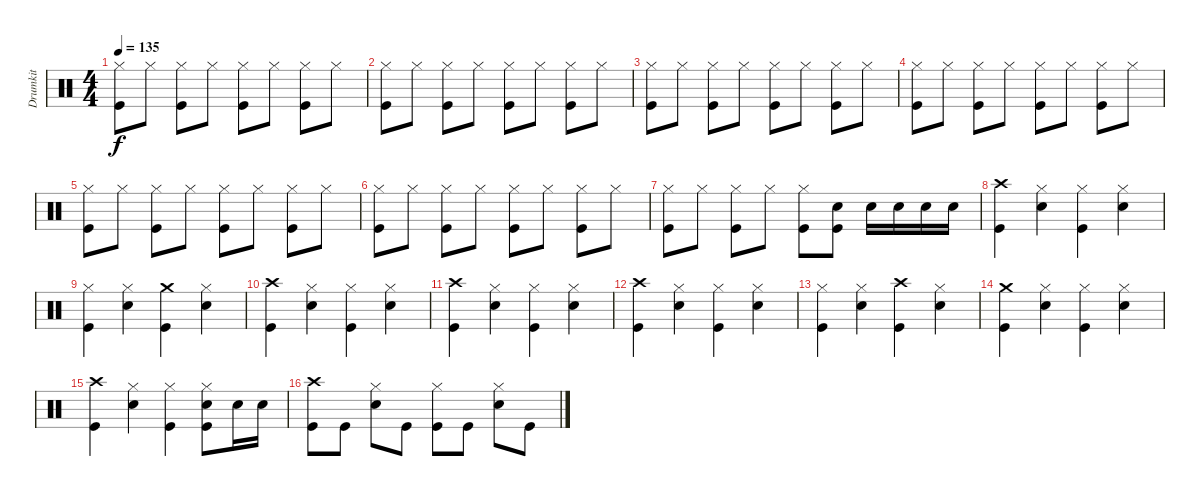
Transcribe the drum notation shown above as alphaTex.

\track ("Drumkit" "Drumkit") {instrument percussion}
\staff {score}
\articulation defaults
\ts (4 4)
\tempo 135
\clef neutral
\ks c
("Hi-Hat (closed)" "Kick (hit)").8{dy f} "Hi-Hat (closed)".8 ("Hi-Hat (closed)" "Kick (hit)").8 "Hi-Hat (closed)".8 ("Hi-Hat (closed)" "Kick (hit)").8 "Hi-Hat (closed)".8 ("Hi-Hat (closed)" "Kick (hit)").8 "Hi-Hat (closed)".8 |
("Hi-Hat (closed)" "Kick (hit)").8 "Hi-Hat (closed)".8 ("Hi-Hat (closed)" "Kick (hit)").8 "Hi-Hat (closed)".8 ("Hi-Hat (closed)" "Kick (hit)").8 "Hi-Hat (closed)".8 ("Hi-Hat (closed)" "Kick (hit)").8 "Hi-Hat (closed)".8 |
("Hi-Hat (closed)" "Kick (hit)").8 "Hi-Hat (closed)".8 ("Hi-Hat (closed)" "Kick (hit)").8 "Hi-Hat (closed)".8 ("Hi-Hat (closed)" "Kick (hit)").8 "Hi-Hat (closed)".8 ("Hi-Hat (closed)" "Kick (hit)").8 "Hi-Hat (closed)".8 |
("Hi-Hat (closed)" "Kick (hit)").8 "Hi-Hat (closed)".8 ("Hi-Hat (closed)" "Kick (hit)").8 "Hi-Hat (closed)".8 ("Hi-Hat (closed)" "Kick (hit)").8 "Hi-Hat (closed)".8 ("Hi-Hat (closed)" "Kick (hit)").8 "Hi-Hat (closed)".8 |
("Hi-Hat (closed)" "Kick (hit)").8 "Hi-Hat (closed)".8 ("Hi-Hat (closed)" "Kick (hit)").8 "Hi-Hat (closed)".8 ("Hi-Hat (closed)" "Kick (hit)").8 "Hi-Hat (closed)".8 ("Hi-Hat (closed)" "Kick (hit)").8 "Hi-Hat (closed)".8 |
("Hi-Hat (closed)" "Kick (hit)").8 "Hi-Hat (closed)".8 ("Hi-Hat (closed)" "Kick (hit)").8 "Hi-Hat (closed)".8 ("Hi-Hat (closed)" "Kick (hit)").8 "Hi-Hat (closed)".8 ("Hi-Hat (closed)" "Kick (hit)").8 "Hi-Hat (closed)".8 |
("Hi-Hat (closed)" "Kick (hit)").8 "Hi-Hat (closed)".8 ("Hi-Hat (closed)" "Kick (hit)").8 "Hi-Hat (closed)".8 ("Hi-Hat (closed)" "Kick (hit)").8 ("Snare (hit) 2" "Kick (hit)").8 "Snare (hit) 2".16 "Snare (hit) 2".16 "Snare (hit) 2".16 "Snare (hit) 2".16 |
("Crash high (hit)" "Kick (hit)").4 ("Hi-Hat (closed)" "Snare (hit) 2").4 ("Hi-Hat (closed)" "Kick (hit)").4 ("Hi-Hat (closed)" "Snare (hit) 2").4 |
("Hi-Hat (closed)" "Kick (hit)").4 ("Hi-Hat (closed)" "Snare (hit) 2").4 ("Crash medium (hit)" "Kick (hit)").4 ("Hi-Hat (closed)" "Snare (hit) 2").4 |
("Crash high (hit)" "Kick (hit)").4 ("Hi-Hat (closed)" "Snare (hit) 2").4 ("Hi-Hat (closed)" "Kick (hit)").4 ("Hi-Hat (closed)" "Snare (hit) 2").4 |
("Crash high (hit)" "Kick (hit)").4 ("Hi-Hat (closed)" "Snare (hit) 2").4 ("Hi-Hat (closed)" "Kick (hit)").4 ("Hi-Hat (closed)" "Snare (hit) 2").4 |
("Crash high (hit)" "Kick (hit)").4 ("Hi-Hat (closed)" "Snare (hit) 2").4 ("Hi-Hat (closed)" "Kick (hit)").4 ("Hi-Hat (closed)" "Snare (hit) 2").4 |
("Hi-Hat (closed)" "Kick (hit)").4 ("Hi-Hat (closed)" "Snare (hit) 2").4 ("Crash high (hit)" "Kick (hit)").4 ("Hi-Hat (closed)" "Snare (hit) 2").4 |
("Crash medium (hit)" "Kick (hit)").4 ("Hi-Hat (closed)" "Snare (hit) 2").4 ("Hi-Hat (closed)" "Kick (hit)").4 ("Hi-Hat (closed)" "Snare (hit) 2").4 |
("Crash high (hit)" "Kick (hit)").4 ("Hi-Hat (closed)" "Snare (hit) 2").4 ("Hi-Hat (closed)" "Kick (hit)").4 ("Hi-Hat (closed)" "Snare (hit) 2" "Kick (hit)").8 "Snare (hit) 2".16 "Snare (hit) 2".16 |
("Crash high (hit)" "Kick (hit)").8 "Kick (hit)".8 ("Hi-Hat (closed)" "Snare (hit) 2").8 "Kick (hit)".8 ("Hi-Hat (closed)" "Kick (hit)").8 "Kick (hit)".8 ("Hi-Hat (closed)" "Snare (hit) 2").8 "Kick (hit)".8
